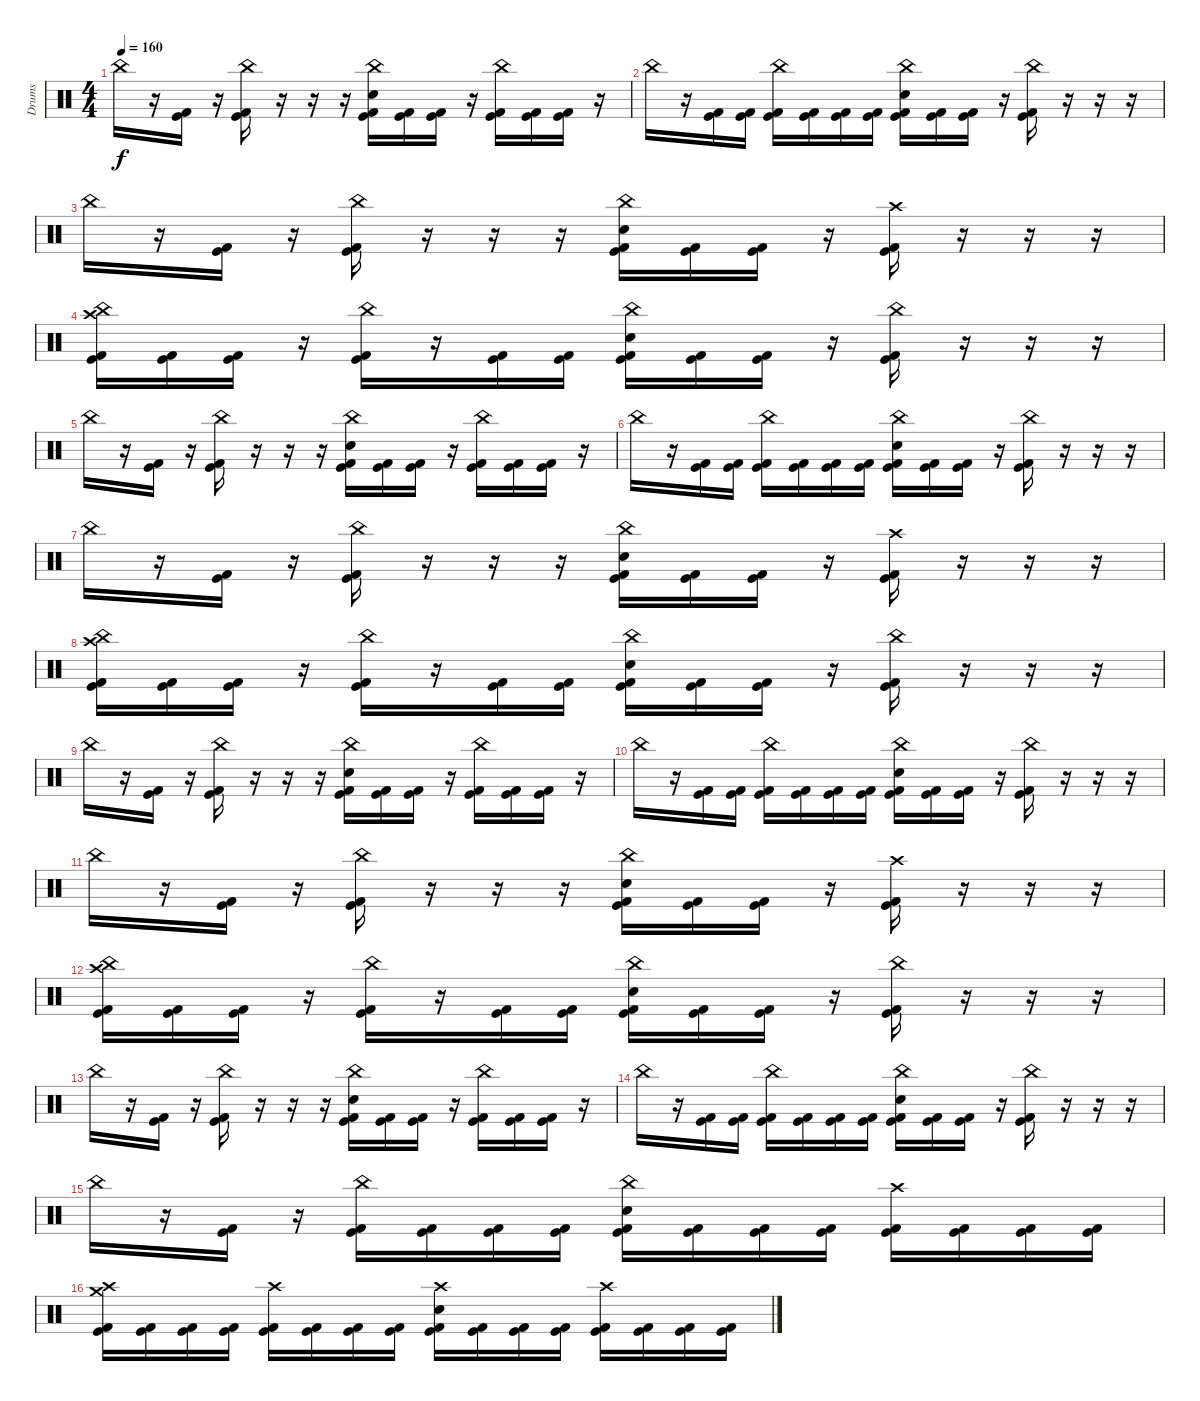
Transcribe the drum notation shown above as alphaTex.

\track ("Drums" "Drums") {instrument percussion}
\staff {score}
\articulation defaults
\ts (4 4)
\tempo 160
\clef neutral
\ks c "China (hit)".16{dy f}
r.16 ("Kick (hit)" "Kick (hit) 2").16 r.16 ("China (hit)" "Kick (hit)" "Kick (hit) 2").16 r.16 r.16 r.16 ("China (hit)" "Snare (hit) 2" "Kick (hit)" "Kick (hit) 2").16 ("Kick (hit)" "Kick (hit) 2").16 ("Kick (hit)" "Kick (hit) 2").16 r.16 ("China (hit)" "Kick (hit)" "Kick (hit) 2").16 ("Kick (hit)" "Kick (hit) 2").16 ("Kick (hit)" "Kick (hit) 2").16 r.16 |
"China (hit)".16 r.16 ("Kick (hit)" "Kick (hit) 2").16 ("Kick (hit)" "Kick (hit) 2").16 ("China (hit)" "Kick (hit)" "Kick (hit) 2").16 ("Kick (hit)" "Kick (hit) 2").16 ("Kick (hit)" "Kick (hit) 2").16 ("Kick (hit)" "Kick (hit) 2").16 ("China (hit)" "Snare (hit) 2" "Kick (hit)" "Kick (hit) 2").16 ("Kick (hit)" "Kick (hit) 2").16 ("Kick (hit)" "Kick (hit) 2").16 r.16 ("China (hit)" "Kick (hit)" "Kick (hit) 2").16 r.16 r.16 r.16 |
"China (hit)".16 r.16 ("Kick (hit)" "Kick (hit) 2").16 r.16 ("China (hit)" "Kick (hit)" "Kick (hit) 2").16 r.16 r.16 r.16 ("China (hit)" "Snare (hit) 2" "Kick (hit)" "Kick (hit) 2").16 ("Kick (hit)" "Kick (hit) 2").16 ("Kick (hit)" "Kick (hit) 2").16 r.16 ("Crash high (hit)" "Kick (hit)" "Kick (hit) 2").16 r.16 r.16 r.16 |
("Crash high (hit)" "China (hit)" "Kick (hit)" "Kick (hit) 2").16 ("Kick (hit)" "Kick (hit) 2").16 ("Kick (hit)" "Kick (hit) 2").16 r.16 ("China (hit)" "Kick (hit)" "Kick (hit) 2").16 r.16 ("Kick (hit)" "Kick (hit) 2").16 ("Kick (hit)" "Kick (hit) 2").16 ("China (hit)" "Snare (hit) 2" "Kick (hit)" "Kick (hit) 2").16 ("Kick (hit)" "Kick (hit) 2").16 ("Kick (hit)" "Kick (hit) 2").16 r.16 ("China (hit)" "Kick (hit)" "Kick (hit) 2").16 r.16 r.16 r.16 |
"China (hit)".16 r.16 ("Kick (hit)" "Kick (hit) 2").16 r.16 ("China (hit)" "Kick (hit)" "Kick (hit) 2").16 r.16 r.16 r.16 ("China (hit)" "Snare (hit) 2" "Kick (hit)" "Kick (hit) 2").16 ("Kick (hit)" "Kick (hit) 2").16 ("Kick (hit)" "Kick (hit) 2").16 r.16 ("China (hit)" "Kick (hit)" "Kick (hit) 2").16 ("Kick (hit)" "Kick (hit) 2").16 ("Kick (hit)" "Kick (hit) 2").16 r.16 |
"China (hit)".16 r.16 ("Kick (hit)" "Kick (hit) 2").16 ("Kick (hit)" "Kick (hit) 2").16 ("China (hit)" "Kick (hit)" "Kick (hit) 2").16 ("Kick (hit)" "Kick (hit) 2").16 ("Kick (hit)" "Kick (hit) 2").16 ("Kick (hit)" "Kick (hit) 2").16 ("China (hit)" "Snare (hit) 2" "Kick (hit)" "Kick (hit) 2").16 ("Kick (hit)" "Kick (hit) 2").16 ("Kick (hit)" "Kick (hit) 2").16 r.16 ("China (hit)" "Kick (hit)" "Kick (hit) 2").16 r.16 r.16 r.16 |
"China (hit)".16 r.16 ("Kick (hit)" "Kick (hit) 2").16 r.16 ("China (hit)" "Kick (hit)" "Kick (hit) 2").16 r.16 r.16 r.16 ("China (hit)" "Snare (hit) 2" "Kick (hit)" "Kick (hit) 2").16 ("Kick (hit)" "Kick (hit) 2").16 ("Kick (hit)" "Kick (hit) 2").16 r.16 ("Crash high (hit)" "Kick (hit)" "Kick (hit) 2").16 r.16 r.16 r.16 |
("Crash high (hit)" "China (hit)" "Kick (hit)" "Kick (hit) 2").16 ("Kick (hit)" "Kick (hit) 2").16 ("Kick (hit)" "Kick (hit) 2").16 r.16 ("China (hit)" "Kick (hit)" "Kick (hit) 2").16 r.16 ("Kick (hit)" "Kick (hit) 2").16 ("Kick (hit)" "Kick (hit) 2").16 ("China (hit)" "Snare (hit) 2" "Kick (hit)" "Kick (hit) 2").16 ("Kick (hit)" "Kick (hit) 2").16 ("Kick (hit)" "Kick (hit) 2").16 r.16 ("China (hit)" "Kick (hit)" "Kick (hit) 2").16 r.16 r.16 r.16 |
"China (hit)".16 r.16 ("Kick (hit)" "Kick (hit) 2").16 r.16 ("China (hit)" "Kick (hit)" "Kick (hit) 2").16 r.16 r.16 r.16 ("China (hit)" "Snare (hit) 2" "Kick (hit)" "Kick (hit) 2").16 ("Kick (hit)" "Kick (hit) 2").16 ("Kick (hit)" "Kick (hit) 2").16 r.16 ("China (hit)" "Kick (hit)" "Kick (hit) 2").16 ("Kick (hit)" "Kick (hit) 2").16 ("Kick (hit)" "Kick (hit) 2").16 r.16 |
"China (hit)".16 r.16 ("Kick (hit)" "Kick (hit) 2").16 ("Kick (hit)" "Kick (hit) 2").16 ("China (hit)" "Kick (hit)" "Kick (hit) 2").16 ("Kick (hit)" "Kick (hit) 2").16 ("Kick (hit)" "Kick (hit) 2").16 ("Kick (hit)" "Kick (hit) 2").16 ("China (hit)" "Snare (hit) 2" "Kick (hit)" "Kick (hit) 2").16 ("Kick (hit)" "Kick (hit) 2").16 ("Kick (hit)" "Kick (hit) 2").16 r.16 ("China (hit)" "Kick (hit)" "Kick (hit) 2").16 r.16 r.16 r.16 |
"China (hit)".16 r.16 ("Kick (hit)" "Kick (hit) 2").16 r.16 ("China (hit)" "Kick (hit)" "Kick (hit) 2").16 r.16 r.16 r.16 ("China (hit)" "Snare (hit) 2" "Kick (hit)" "Kick (hit) 2").16 ("Kick (hit)" "Kick (hit) 2").16 ("Kick (hit)" "Kick (hit) 2").16 r.16 ("Crash high (hit)" "Kick (hit)" "Kick (hit) 2").16 r.16 r.16 r.16 |
("Crash high (hit)" "China (hit)" "Kick (hit)" "Kick (hit) 2").16 ("Kick (hit)" "Kick (hit) 2").16 ("Kick (hit)" "Kick (hit) 2").16 r.16 ("China (hit)" "Kick (hit)" "Kick (hit) 2").16 r.16 ("Kick (hit)" "Kick (hit) 2").16 ("Kick (hit)" "Kick (hit) 2").16 ("China (hit)" "Snare (hit) 2" "Kick (hit)" "Kick (hit) 2").16 ("Kick (hit)" "Kick (hit) 2").16 ("Kick (hit)" "Kick (hit) 2").16 r.16 ("China (hit)" "Kick (hit)" "Kick (hit) 2").16 r.16 r.16 r.16 |
"China (hit)".16 r.16 ("Kick (hit)" "Kick (hit) 2").16 r.16 ("China (hit)" "Kick (hit)" "Kick (hit) 2").16 r.16 r.16 r.16 ("China (hit)" "Snare (hit) 2" "Kick (hit)" "Kick (hit) 2").16 ("Kick (hit)" "Kick (hit) 2").16 ("Kick (hit)" "Kick (hit) 2").16 r.16 ("China (hit)" "Kick (hit)" "Kick (hit) 2").16 ("Kick (hit)" "Kick (hit) 2").16 ("Kick (hit)" "Kick (hit) 2").16 r.16 |
"China (hit)".16 r.16 ("Kick (hit)" "Kick (hit) 2").16 ("Kick (hit)" "Kick (hit) 2").16 ("China (hit)" "Kick (hit)" "Kick (hit) 2").16 ("Kick (hit)" "Kick (hit) 2").16 ("Kick (hit)" "Kick (hit) 2").16 ("Kick (hit)" "Kick (hit) 2").16 ("China (hit)" "Snare (hit) 2" "Kick (hit)" "Kick (hit) 2").16 ("Kick (hit)" "Kick (hit) 2").16 ("Kick (hit)" "Kick (hit) 2").16 r.16 ("China (hit)" "Kick (hit)" "Kick (hit) 2").16 r.16 r.16 r.16 |
"China (hit)".16 r.16 ("Kick (hit)" "Kick (hit) 2").16 r.16 ("China (hit)" "Kick (hit)" "Kick (hit) 2").16 ("Kick (hit)" "Kick (hit) 2").16 ("Kick (hit)" "Kick (hit) 2").16 ("Kick (hit)" "Kick (hit) 2").16 ("China (hit)" "Snare (hit) 2" "Kick (hit)" "Kick (hit) 2").16 ("Kick (hit)" "Kick (hit) 2").16 ("Kick (hit)" "Kick (hit) 2").16 ("Kick (hit)" "Kick (hit) 2").16 ("Crash high (hit)" "Kick (hit)" "Kick (hit) 2").16 ("Kick (hit)" "Kick (hit) 2").16 ("Kick (hit)" "Kick (hit) 2").16 ("Kick (hit)" "Kick (hit) 2").16 |
("Crash medium (hit)" "Crash high (hit)" "Kick (hit)" "Kick (hit) 2").16 ("Kick (hit)" "Kick (hit) 2").16 ("Kick (hit)" "Kick (hit) 2").16 ("Kick (hit)" "Kick (hit) 2").16 ("Crash high (hit)" "Kick (hit)" "Kick (hit) 2").16 ("Kick (hit)" "Kick (hit) 2").16 ("Kick (hit)" "Kick (hit) 2").16 ("Kick (hit)" "Kick (hit) 2").16 ("Crash high (hit)" "Snare (hit) 2" "Kick (hit)" "Kick (hit) 2").16 ("Kick (hit)" "Kick (hit) 2").16 ("Kick (hit)" "Kick (hit) 2").16 ("Kick (hit)" "Kick (hit) 2").16 ("Crash high (hit)" "Kick (hit)" "Kick (hit) 2").16 ("Kick (hit)" "Kick (hit) 2").16 ("Kick (hit)" "Kick (hit) 2").16 ("Kick (hit)" "Kick (hit) 2").16
